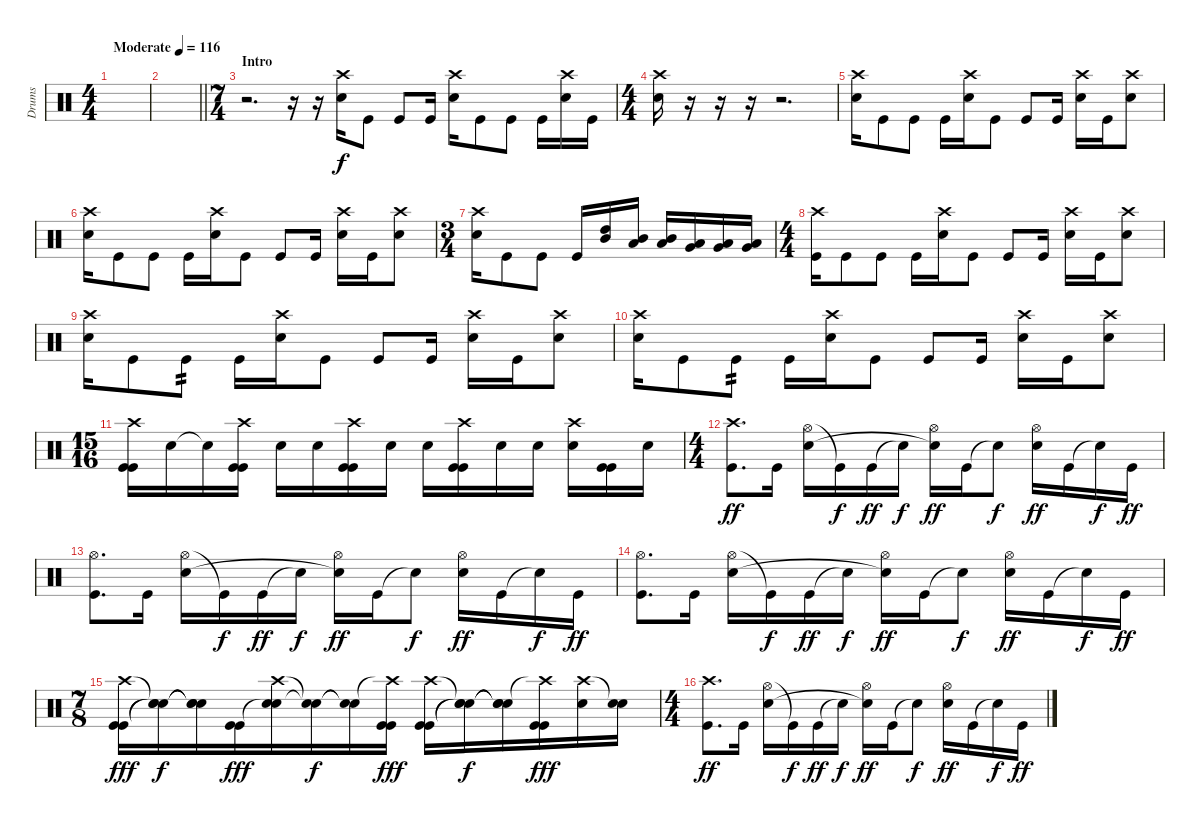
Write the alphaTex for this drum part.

\track ("Drums" "Drums") {instrument percussion}
\staff {score}
\articulation defaults
\ts (4 4)
\tempo (116 "Moderate")
\clef neutral
\ks c
|
\barLineRight lightlight
|
\ts (7 4)
\section ("" "Intro")
r.2{d} r.16 r.16 ("Crash high (hit)" "Electric Snare (hit)").16 "Kick (hit)".8 "Kick (hit)".8 "Kick (hit)".16 ("Electric Snare (hit)" "Crash high (hit)").16 "Kick (hit)".8 "Kick (hit)".8 "Kick (hit)".16 ("Electric Snare (hit)" "Crash high (hit)").16 "Kick (hit)".16 |
\ts (4 4)
("Electric Snare (hit)" "Crash high (hit)").16 r.16 r.16 r.16 r.2{d} |
("Crash high (hit)" "Electric Snare (hit)").16 "Kick (hit)".8 "Kick (hit)".8 "Kick (hit)".16 ("Electric Snare (hit)" "Crash high (hit)").16 "Kick (hit)".8 "Kick (hit)".8 "Kick (hit)".16 ("Electric Snare (hit)" "Crash high (hit)").16 "Kick (hit)".16 ("Electric Snare (hit)" "Crash high (hit)").8 |
("Crash high (hit)" "Electric Snare (hit)").16 "Kick (hit)".8 "Kick (hit)".8 "Kick (hit)".16 ("Electric Snare (hit)" "Crash high (hit)").16 "Kick (hit)".8 "Kick (hit)".8 "Kick (hit)".16 ("Electric Snare (hit)" "Crash high (hit)").16 "Kick (hit)".16 ("Electric Snare (hit)" "Crash high (hit)").8 |
\ts (3 4)
("Crash high (hit)" "Electric Snare (hit)").16 "Kick (hit)".8 "Kick (hit)".8 "Kick (hit)".16 ("Mid Tom (hit)" "High Tom (hit)").16 ("Low Tom (hit)" "Mid Tom (hit)").16 ("Low Tom (hit)" "Mid Tom (hit)").16 ("Very Low Tom (hit)" "Low Tom (hit)").16 ("Very Low Tom (hit)" "Low Tom (hit)").16 ("Low Floor Tom (hit)" "Very Low Tom (hit)").16 |
\ts (4 4)
("Kick (hit)" "Crash high (hit)").16 "Kick (hit)".8 "Kick (hit)".8 "Kick (hit)".16 ("Electric Snare (hit)" "Crash high (hit)").16 "Kick (hit)".8 "Kick (hit)".8 "Kick (hit)".16 ("Electric Snare (hit)" "Crash high (hit)").16 "Kick (hit)".16 ("Electric Snare (hit)" "Crash high (hit)").8 |
("Crash high (hit)" "Electric Snare (hit)").16 "Kick (hit)".8 "Kick (hit)".8{tp 2} "Kick (hit)".16 ("Electric Snare (hit)" "Crash high (hit)").16 "Kick (hit)".8 "Kick (hit)".8 "Kick (hit)".16 ("Electric Snare (hit)" "Crash high (hit)").16 "Kick (hit)".16 ("Electric Snare (hit)" "Crash high (hit)").8 |
("Crash high (hit)" "Electric Snare (hit)").16 "Kick (hit)".8 "Kick (hit)".8{tp 2} "Kick (hit)".16 ("Electric Snare (hit)" "Crash high (hit)").16 "Kick (hit)".8 "Kick (hit)".8 "Kick (hit)".16 ("Electric Snare (hit)" "Crash high (hit)").16 "Kick (hit)".16 ("Electric Snare (hit)" "Crash high (hit)").8 |
\ts (15 16)
("Crash high (hit)" "Kick (hit)" "Kick (hit)").16 "Electric Snare (hit)".16 "Snare (hit)"{t}.16 ("Crash high (hit)" "Kick (hit)" "Kick (hit)").16 "Electric Snare (hit)".16 "Electric Snare (hit)".16 ("Crash high (hit)" "Kick (hit)" "Kick (hit)").16 "Electric Snare (hit)".16 "Electric Snare (hit)".16 ("Crash high (hit)" "Kick (hit)" "Kick (hit)").16 "Electric Snare (hit)".16 "Electric Snare (hit)".16 ("Crash high (hit)" "Electric Snare (hit)").16 ("Kick (hit)" "Kick (hit)").16 "Electric Snare (hit)".16 |
\ts (4 4)
("Crash high (hit)" "Kick (hit)").8{d dy ff} "Kick (hit)".16 ("Hi-Hat (open)" "Electric Snare (hit)").16 "Kick (hit)"{t}.16{dy f} "Kick (hit)".16{dy ff} "Snare (hit)"{t}.16{dy f} ("Hi-Hat (open)" "Snare (hit)"{t}).16{dy ff} "Kick (hit)".16 "Snare (hit)"{t}.8{dy f} ("Hi-Hat (open)" "Electric Snare (hit)").16{dy ff} "Kick (hit)".16 "Snare (hit)"{t}.16{dy f} "Kick (hit)".16{dy ff} |
("Hi-Hat (open)" "Kick (hit)").8{d} "Kick (hit)".16 ("Hi-Hat (open)" "Electric Snare (hit)").16 "Kick (hit)"{t}.16{dy f} "Kick (hit)".16{dy ff} "Snare (hit)"{t}.16{dy f} ("Hi-Hat (open)" "Snare (hit)"{t}).16{dy ff} "Kick (hit)".16 "Snare (hit)"{t}.8{dy f} ("Hi-Hat (open)" "Electric Snare (hit)").16{dy ff} "Kick (hit)".16 "Snare (hit)"{t}.16{dy f} "Kick (hit)".16{dy ff} |
("Hi-Hat (open)" "Kick (hit)").8{d} "Kick (hit)".16 ("Hi-Hat (open)" "Electric Snare (hit)").16 "Kick (hit)"{t}.16{dy f} "Kick (hit)".16{dy ff} "Snare (hit)"{t}.16{dy f} ("Hi-Hat (open)" "Snare (hit)"{t}).16{dy ff} "Kick (hit)".16 "Snare (hit)"{t}.8{dy f} ("Hi-Hat (open)" "Electric Snare (hit)").16{dy ff} "Kick (hit)".16 "Snare (hit)"{t}.16{dy f} "Kick (hit)".16{dy ff} |
\ts (7 8)
("Crash high (hit)" "Kick (hit)" "Kick (hit)").16{dy fff} ("Snare (hit)"{t} "Snare (hit)"{t} "Snare (hit)"{t}).16{dy f} ("Snare (hit)"{t} "Snare (hit)"{t} "Snare (hit)"{t}).16 ("Kick (hit)" "Kick (hit)").16{dy fff} ("Crash high (hit)" "Snare (hit)"{t} "Electric Snare (hit)").16 ("Snare (hit)"{t} "Snare (hit)"{t}).16{dy f} ("Snare (hit)"{t} "Snare (hit)"{t}).16 ("Crash high (hit)"{t} "Kick (hit)" "Kick (hit)").16{dy fff} ("Crash high (hit)" "Kick (hit)" "Kick (hit)").16 ("Snare (hit)"{t} "Snare (hit)"{t} "Snare (hit)"{t}).16{dy f} ("Snare (hit)"{t} "Snare (hit)"{t} "Snare (hit)"{t}).16 ("Crash high (hit)"{t} "Kick (hit)" "Kick (hit)").16{dy fff} ("Crash high (hit)" "Electric Snare (hit)").16 ("Snare (hit)"{t} "Electric Snare (hit)").16 |
\ts (4 4)
("Crash high (hit)" "Kick (hit)").8{d dy ff} "Kick (hit)".16 ("Hi-Hat (open)" "Electric Snare (hit)").16 "Kick (hit)"{t}.16{dy f} "Kick (hit)".16{dy ff} "Snare (hit)"{t}.16{dy f} ("Hi-Hat (open)" "Snare (hit)"{t}).16{dy ff} "Kick (hit)".16 "Snare (hit)"{t}.8{dy f} ("Hi-Hat (open)" "Electric Snare (hit)").16{dy ff} "Kick (hit)".16 "Snare (hit)"{t}.16{dy f} "Kick (hit)".16{dy ff}
